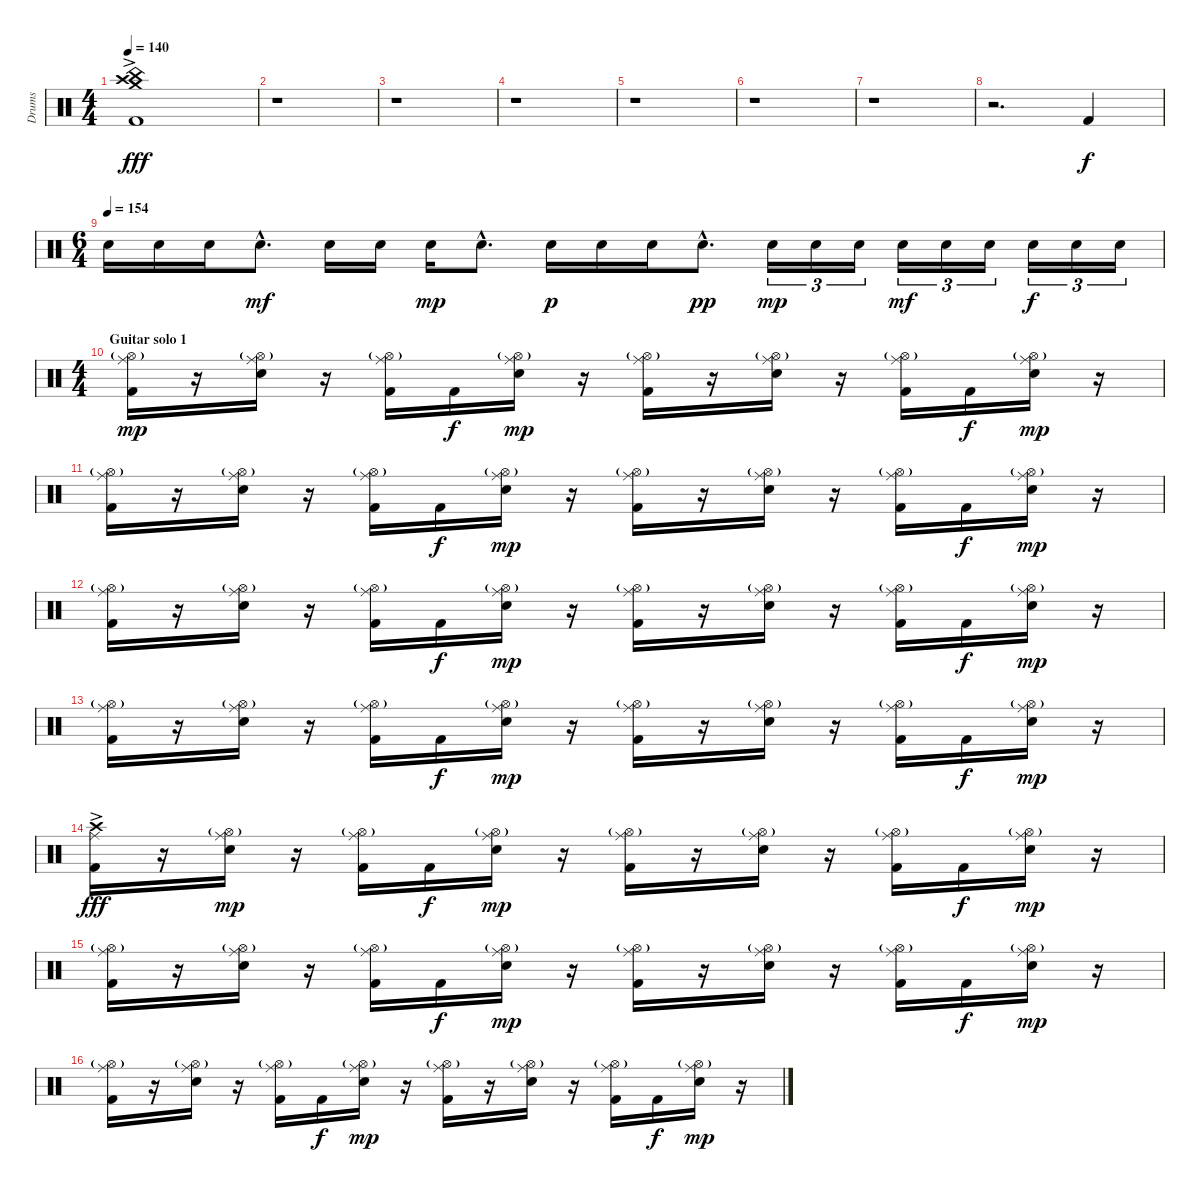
\track ("Drums" "Drums") {instrument percussion}
\staff {score}
\articulation defaults
\ts (4 4)
\tempo 140
\clef neutral
\ks c
("Crash high (hit)"{ac} "Crash medium (hit)"{ac} "China (hit)"{ac} "Kick (hit) 2"{ac}).1{dy fff} |
r.1 |
r.1 |
r.1 |
r.1 |
r.1 |
r.1 |
r.2{d} "Kick (hit) 2".4{dy f} |
\ts (6 4)
\tempo (154)
"Electric Snare (hit)".16 "Electric Snare (hit)".16 "Electric Snare (hit)".16 "Electric Snare (hit)"{hac}.8{d dy mf} "Electric Snare (hit)".16 "Electric Snare (hit)".16 "Electric Snare (hit)".16{dy mp} "Electric Snare (hit)"{hac}.8{d} "Electric Snare (hit)".16{dy p} "Electric Snare (hit)".16 "Electric Snare (hit)".16 "Electric Snare (hit)"{hac}.8{d dy pp} "Electric Snare (hit)".16{tu (3 2) dy mp} "Electric Snare (hit)".16{tu (3 2)} "Electric Snare (hit)".16{tu (3 2)} "Electric Snare (hit)".16{tu (3 2) dy mf} "Electric Snare (hit)".16{tu (3 2)} "Electric Snare (hit)".16{tu (3 2)} "Electric Snare (hit)".16{tu (3 2) dy f} "Electric Snare (hit)".16{tu (3 2)} "Electric Snare (hit)".16{tu (3 2)} |
\ts (4 4)
\section ("" "Guitar solo 1")
("Hi-Hat (open)"{g} "Ride (middle)" "Kick (hit) 2").16{dy mp} r.16 ("Hi-Hat (open)"{g} "Ride (middle)" "Electric Snare (hit)").16 r.16 ("Hi-Hat (open)"{g} "Ride (middle)" "Kick (hit) 2").16 "Kick (hit) 2".16{dy f} ("Hi-Hat (open)"{g} "Ride (middle)" "Electric Snare (hit)").16{dy mp} r.16 ("Hi-Hat (open)"{g} "Ride (middle)" "Kick (hit) 2").16 r.16 ("Hi-Hat (open)"{g} "Ride (middle)" "Electric Snare (hit)").16 r.16 ("Hi-Hat (open)"{g} "Ride (middle)" "Kick (hit) 2").16 "Kick (hit) 2".16{dy f} ("Hi-Hat (open)"{g} "Ride (middle)" "Electric Snare (hit)").16{dy mp} r.16 |
("Hi-Hat (open)"{g} "Ride (middle)" "Kick (hit) 2").16 r.16 ("Hi-Hat (open)"{g} "Ride (middle)" "Electric Snare (hit)").16 r.16 ("Hi-Hat (open)"{g} "Ride (middle)" "Kick (hit) 2").16 "Kick (hit) 2".16{dy f} ("Hi-Hat (open)"{g} "Ride (middle)" "Electric Snare (hit)").16{dy mp} r.16 ("Hi-Hat (open)"{g} "Ride (middle)" "Kick (hit) 2").16 r.16 ("Hi-Hat (open)"{g} "Ride (middle)" "Electric Snare (hit)").16 r.16 ("Hi-Hat (open)"{g} "Ride (middle)" "Kick (hit) 2").16 "Kick (hit) 2".16{dy f} ("Hi-Hat (open)"{g} "Ride (middle)" "Electric Snare (hit)").16{dy mp} r.16 |
("Hi-Hat (open)"{g} "Ride (middle)" "Kick (hit) 2").16 r.16 ("Hi-Hat (open)"{g} "Ride (middle)" "Electric Snare (hit)").16 r.16 ("Hi-Hat (open)"{g} "Ride (middle)" "Kick (hit) 2").16 "Kick (hit) 2".16{dy f} ("Hi-Hat (open)"{g} "Ride (middle)" "Electric Snare (hit)").16{dy mp} r.16 ("Hi-Hat (open)"{g} "Ride (middle)" "Kick (hit) 2").16 r.16 ("Hi-Hat (open)"{g} "Ride (middle)" "Electric Snare (hit)").16 r.16 ("Hi-Hat (open)"{g} "Ride (middle)" "Kick (hit) 2").16 "Kick (hit) 2".16{dy f} ("Hi-Hat (open)"{g} "Ride (middle)" "Electric Snare (hit)").16{dy mp} r.16 |
("Hi-Hat (open)"{g} "Ride (middle)" "Kick (hit) 2").16 r.16 ("Hi-Hat (open)"{g} "Ride (middle)" "Electric Snare (hit)").16 r.16 ("Hi-Hat (open)"{g} "Ride (middle)" "Kick (hit) 2").16 "Kick (hit) 2".16{dy f} ("Hi-Hat (open)"{g} "Ride (middle)" "Electric Snare (hit)").16{dy mp} r.16 ("Hi-Hat (open)"{g} "Ride (middle)" "Kick (hit) 2").16 r.16 ("Hi-Hat (open)"{g} "Ride (middle)" "Electric Snare (hit)").16 r.16 ("Hi-Hat (open)"{g} "Ride (middle)" "Kick (hit) 2").16 "Kick (hit) 2".16{dy f} ("Hi-Hat (open)"{g} "Ride (middle)" "Electric Snare (hit)").16{dy mp} r.16 |
("Crash high (hit)"{ac} "Ride (middle)" "Kick (hit) 2").16{dy fff} r.16 ("Hi-Hat (open)"{g} "Ride (middle)" "Electric Snare (hit)").16{dy mp} r.16 ("Hi-Hat (open)"{g} "Ride (middle)" "Kick (hit) 2").16 "Kick (hit) 2".16{dy f} ("Hi-Hat (open)"{g} "Ride (middle)" "Electric Snare (hit)").16{dy mp} r.16 ("Hi-Hat (open)"{g} "Ride (middle)" "Kick (hit) 2").16 r.16 ("Hi-Hat (open)"{g} "Ride (middle)" "Electric Snare (hit)").16 r.16 ("Hi-Hat (open)"{g} "Ride (middle)" "Kick (hit) 2").16 "Kick (hit) 2".16{dy f} ("Hi-Hat (open)"{g} "Ride (middle)" "Electric Snare (hit)").16{dy mp} r.16 |
("Hi-Hat (open)"{g} "Ride (middle)" "Kick (hit) 2").16 r.16 ("Hi-Hat (open)"{g} "Ride (middle)" "Electric Snare (hit)").16 r.16 ("Hi-Hat (open)"{g} "Ride (middle)" "Kick (hit) 2").16 "Kick (hit) 2".16{dy f} ("Hi-Hat (open)"{g} "Ride (middle)" "Electric Snare (hit)").16{dy mp} r.16 ("Hi-Hat (open)"{g} "Ride (middle)" "Kick (hit) 2").16 r.16 ("Hi-Hat (open)"{g} "Ride (middle)" "Electric Snare (hit)").16 r.16 ("Hi-Hat (open)"{g} "Ride (middle)" "Kick (hit) 2").16 "Kick (hit) 2".16{dy f} ("Hi-Hat (open)"{g} "Ride (middle)" "Electric Snare (hit)").16{dy mp} r.16 |
("Hi-Hat (open)"{g} "Ride (middle)" "Kick (hit) 2").16 r.16 ("Hi-Hat (open)"{g} "Ride (middle)" "Electric Snare (hit)").16 r.16 ("Hi-Hat (open)"{g} "Ride (middle)" "Kick (hit) 2").16 "Kick (hit) 2".16{dy f} ("Hi-Hat (open)"{g} "Ride (middle)" "Electric Snare (hit)").16{dy mp} r.16 ("Hi-Hat (open)"{g} "Ride (middle)" "Kick (hit) 2").16 r.16 ("Hi-Hat (open)"{g} "Ride (middle)" "Electric Snare (hit)").16 r.16 ("Hi-Hat (open)"{g} "Ride (middle)" "Kick (hit) 2").16 "Kick (hit) 2".16{dy f} ("Hi-Hat (open)"{g} "Ride (middle)" "Electric Snare (hit)").16{dy mp} r.16
